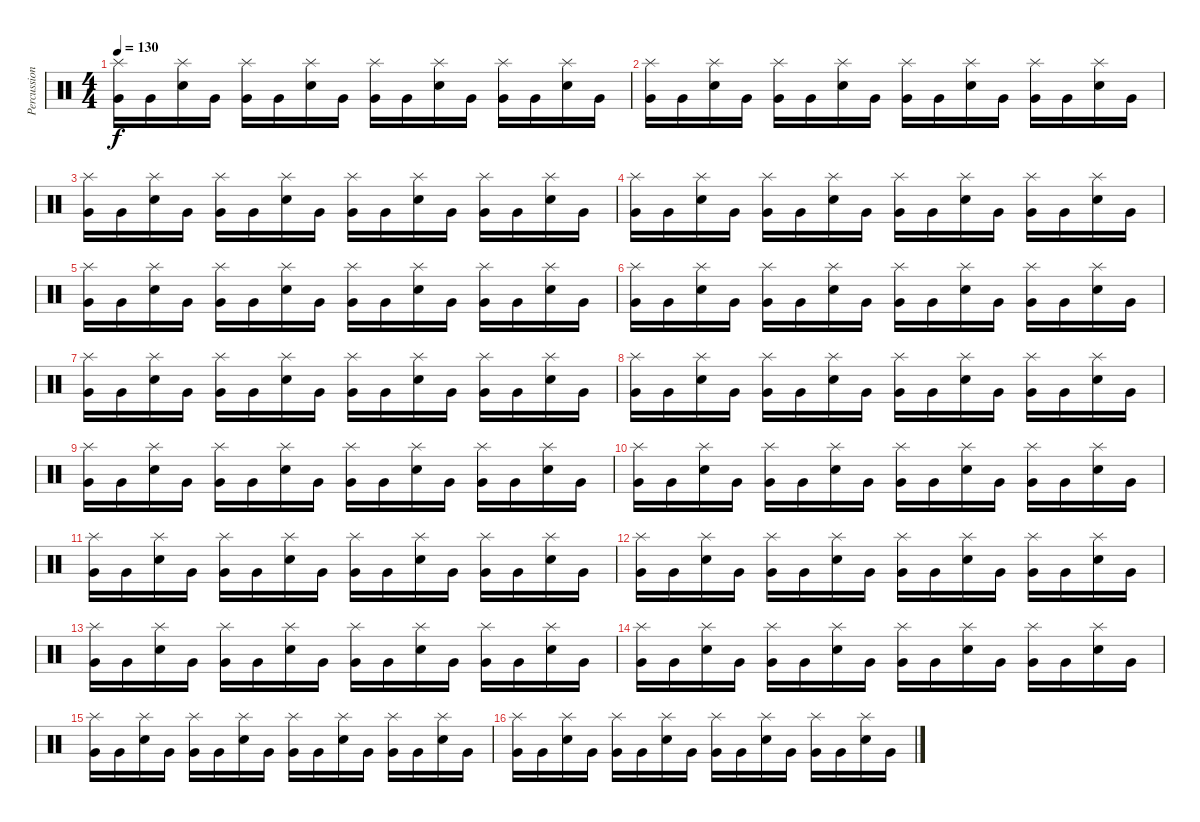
\track ("Percussion" "Percussion") {instrument percussion}
\staff {score}
\articulation defaults
\ts (4 4)
\tempo 130
\clef neutral
\ks c
("Very Low Tom (hit)" "Splash (hit)").16{dy f} "Very Low Tom (hit)".16 ("Snare (hit) 2" "Splash (hit)").16 "Very Low Tom (hit)".16 ("Very Low Tom (hit)" "Splash (hit)").16 "Very Low Tom (hit)".16 ("Snare (hit) 2" "Splash (hit)").16 "Very Low Tom (hit)".16 ("Very Low Tom (hit)" "Splash (hit)").16 "Very Low Tom (hit)".16 ("Snare (hit) 2" "Splash (hit)").16 "Very Low Tom (hit)".16 ("Very Low Tom (hit)" "Splash (hit)").16 "Very Low Tom (hit)".16 ("Snare (hit) 2" "Splash (hit)").16 "Very Low Tom (hit)".16 |
("Very Low Tom (hit)" "Splash (hit)").16 "Very Low Tom (hit)".16 ("Snare (hit) 2" "Splash (hit)").16 "Very Low Tom (hit)".16 ("Very Low Tom (hit)" "Splash (hit)").16 "Very Low Tom (hit)".16 ("Snare (hit) 2" "Splash (hit)").16 "Very Low Tom (hit)".16 ("Very Low Tom (hit)" "Splash (hit)").16 "Very Low Tom (hit)".16 ("Snare (hit) 2" "Splash (hit)").16 "Very Low Tom (hit)".16 ("Very Low Tom (hit)" "Splash (hit)").16 "Very Low Tom (hit)".16 ("Snare (hit) 2" "Splash (hit)").16 "Very Low Tom (hit)".16 |
("Very Low Tom (hit)" "Splash (hit)").16 "Very Low Tom (hit)".16 ("Snare (hit) 2" "Splash (hit)").16 "Very Low Tom (hit)".16 ("Very Low Tom (hit)" "Splash (hit)").16 "Very Low Tom (hit)".16 ("Snare (hit) 2" "Splash (hit)").16 "Very Low Tom (hit)".16 ("Very Low Tom (hit)" "Splash (hit)").16 "Very Low Tom (hit)".16 ("Snare (hit) 2" "Splash (hit)").16 "Very Low Tom (hit)".16 ("Very Low Tom (hit)" "Splash (hit)").16 "Very Low Tom (hit)".16 ("Snare (hit) 2" "Splash (hit)").16 "Very Low Tom (hit)".16 |
("Very Low Tom (hit)" "Splash (hit)").16 "Very Low Tom (hit)".16 ("Snare (hit) 2" "Splash (hit)").16 "Very Low Tom (hit)".16 ("Very Low Tom (hit)" "Splash (hit)").16 "Very Low Tom (hit)".16 ("Snare (hit) 2" "Splash (hit)").16 "Very Low Tom (hit)".16 ("Very Low Tom (hit)" "Splash (hit)").16 "Very Low Tom (hit)".16 ("Snare (hit) 2" "Splash (hit)").16 "Very Low Tom (hit)".16 ("Very Low Tom (hit)" "Splash (hit)").16 "Very Low Tom (hit)".16 ("Snare (hit) 2" "Splash (hit)").16 "Very Low Tom (hit)".16 |
("Very Low Tom (hit)" "Splash (hit)").16 "Very Low Tom (hit)".16 ("Snare (hit) 2" "Splash (hit)").16 "Very Low Tom (hit)".16 ("Very Low Tom (hit)" "Splash (hit)").16 "Very Low Tom (hit)".16 ("Snare (hit) 2" "Splash (hit)").16 "Very Low Tom (hit)".16 ("Very Low Tom (hit)" "Splash (hit)").16 "Very Low Tom (hit)".16 ("Snare (hit) 2" "Splash (hit)").16 "Very Low Tom (hit)".16 ("Very Low Tom (hit)" "Splash (hit)").16 "Very Low Tom (hit)".16 ("Snare (hit) 2" "Splash (hit)").16 "Very Low Tom (hit)".16 |
("Very Low Tom (hit)" "Splash (hit)").16 "Very Low Tom (hit)".16 ("Snare (hit) 2" "Splash (hit)").16 "Very Low Tom (hit)".16 ("Very Low Tom (hit)" "Splash (hit)").16 "Very Low Tom (hit)".16 ("Snare (hit) 2" "Splash (hit)").16 "Very Low Tom (hit)".16 ("Very Low Tom (hit)" "Splash (hit)").16 "Very Low Tom (hit)".16 ("Snare (hit) 2" "Splash (hit)").16 "Very Low Tom (hit)".16 ("Very Low Tom (hit)" "Splash (hit)").16 "Very Low Tom (hit)".16 ("Snare (hit) 2" "Splash (hit)").16 "Very Low Tom (hit)".16 |
("Very Low Tom (hit)" "Splash (hit)").16 "Very Low Tom (hit)".16 ("Snare (hit) 2" "Splash (hit)").16 "Very Low Tom (hit)".16 ("Very Low Tom (hit)" "Splash (hit)").16 "Very Low Tom (hit)".16 ("Snare (hit) 2" "Splash (hit)").16 "Very Low Tom (hit)".16 ("Very Low Tom (hit)" "Splash (hit)").16 "Very Low Tom (hit)".16 ("Snare (hit) 2" "Splash (hit)").16 "Very Low Tom (hit)".16 ("Very Low Tom (hit)" "Splash (hit)").16 "Very Low Tom (hit)".16 ("Snare (hit) 2" "Splash (hit)").16 "Very Low Tom (hit)".16 |
("Very Low Tom (hit)" "Splash (hit)").16 "Very Low Tom (hit)".16 ("Snare (hit) 2" "Splash (hit)").16 "Very Low Tom (hit)".16 ("Very Low Tom (hit)" "Splash (hit)").16 "Very Low Tom (hit)".16 ("Snare (hit) 2" "Splash (hit)").16 "Very Low Tom (hit)".16 ("Very Low Tom (hit)" "Splash (hit)").16 "Very Low Tom (hit)".16 ("Snare (hit) 2" "Splash (hit)").16 "Very Low Tom (hit)".16 ("Very Low Tom (hit)" "Splash (hit)").16 "Very Low Tom (hit)".16 ("Snare (hit) 2" "Splash (hit)").16 "Very Low Tom (hit)".16 |
("Very Low Tom (hit)" "Splash (hit)").16 "Very Low Tom (hit)".16 ("Snare (hit) 2" "Splash (hit)").16 "Very Low Tom (hit)".16 ("Very Low Tom (hit)" "Splash (hit)").16 "Very Low Tom (hit)".16 ("Snare (hit) 2" "Splash (hit)").16 "Very Low Tom (hit)".16 ("Very Low Tom (hit)" "Splash (hit)").16 "Very Low Tom (hit)".16 ("Snare (hit) 2" "Splash (hit)").16 "Very Low Tom (hit)".16 ("Very Low Tom (hit)" "Splash (hit)").16 "Very Low Tom (hit)".16 ("Snare (hit) 2" "Splash (hit)").16 "Very Low Tom (hit)".16 |
("Very Low Tom (hit)" "Splash (hit)").16 "Very Low Tom (hit)".16 ("Snare (hit) 2" "Splash (hit)").16 "Very Low Tom (hit)".16 ("Very Low Tom (hit)" "Splash (hit)").16 "Very Low Tom (hit)".16 ("Snare (hit) 2" "Splash (hit)").16 "Very Low Tom (hit)".16 ("Very Low Tom (hit)" "Splash (hit)").16 "Very Low Tom (hit)".16 ("Snare (hit) 2" "Splash (hit)").16 "Very Low Tom (hit)".16 ("Very Low Tom (hit)" "Splash (hit)").16 "Very Low Tom (hit)".16 ("Snare (hit) 2" "Splash (hit)").16 "Very Low Tom (hit)".16 |
("Very Low Tom (hit)" "Splash (hit)").16 "Very Low Tom (hit)".16 ("Snare (hit) 2" "Splash (hit)").16 "Very Low Tom (hit)".16 ("Very Low Tom (hit)" "Splash (hit)").16 "Very Low Tom (hit)".16 ("Snare (hit) 2" "Splash (hit)").16 "Very Low Tom (hit)".16 ("Very Low Tom (hit)" "Splash (hit)").16 "Very Low Tom (hit)".16 ("Snare (hit) 2" "Splash (hit)").16 "Very Low Tom (hit)".16 ("Very Low Tom (hit)" "Splash (hit)").16 "Very Low Tom (hit)".16 ("Snare (hit) 2" "Splash (hit)").16 "Very Low Tom (hit)".16 |
("Very Low Tom (hit)" "Splash (hit)").16 "Very Low Tom (hit)".16 ("Snare (hit) 2" "Splash (hit)").16 "Very Low Tom (hit)".16 ("Very Low Tom (hit)" "Splash (hit)").16 "Very Low Tom (hit)".16 ("Snare (hit) 2" "Splash (hit)").16 "Very Low Tom (hit)".16 ("Very Low Tom (hit)" "Splash (hit)").16 "Very Low Tom (hit)".16 ("Snare (hit) 2" "Splash (hit)").16 "Very Low Tom (hit)".16 ("Very Low Tom (hit)" "Splash (hit)").16 "Very Low Tom (hit)".16 ("Snare (hit) 2" "Splash (hit)").16 "Very Low Tom (hit)".16 |
("Very Low Tom (hit)" "Splash (hit)").16 "Very Low Tom (hit)".16 ("Snare (hit) 2" "Splash (hit)").16 "Very Low Tom (hit)".16 ("Very Low Tom (hit)" "Splash (hit)").16 "Very Low Tom (hit)".16 ("Snare (hit) 2" "Splash (hit)").16 "Very Low Tom (hit)".16 ("Very Low Tom (hit)" "Splash (hit)").16 "Very Low Tom (hit)".16 ("Snare (hit) 2" "Splash (hit)").16 "Very Low Tom (hit)".16 ("Very Low Tom (hit)" "Splash (hit)").16 "Very Low Tom (hit)".16 ("Snare (hit) 2" "Splash (hit)").16 "Very Low Tom (hit)".16 |
("Very Low Tom (hit)" "Splash (hit)").16 "Very Low Tom (hit)".16 ("Snare (hit) 2" "Splash (hit)").16 "Very Low Tom (hit)".16 ("Very Low Tom (hit)" "Splash (hit)").16 "Very Low Tom (hit)".16 ("Snare (hit) 2" "Splash (hit)").16 "Very Low Tom (hit)".16 ("Very Low Tom (hit)" "Splash (hit)").16 "Very Low Tom (hit)".16 ("Snare (hit) 2" "Splash (hit)").16 "Very Low Tom (hit)".16 ("Very Low Tom (hit)" "Splash (hit)").16 "Very Low Tom (hit)".16 ("Snare (hit) 2" "Splash (hit)").16 "Very Low Tom (hit)".16 |
("Very Low Tom (hit)" "Splash (hit)").16 "Very Low Tom (hit)".16 ("Snare (hit) 2" "Splash (hit)").16 "Very Low Tom (hit)".16 ("Very Low Tom (hit)" "Splash (hit)").16 "Very Low Tom (hit)".16 ("Snare (hit) 2" "Splash (hit)").16 "Very Low Tom (hit)".16 ("Very Low Tom (hit)" "Splash (hit)").16 "Very Low Tom (hit)".16 ("Snare (hit) 2" "Splash (hit)").16 "Very Low Tom (hit)".16 ("Very Low Tom (hit)" "Splash (hit)").16 "Very Low Tom (hit)".16 ("Snare (hit) 2" "Splash (hit)").16 "Very Low Tom (hit)".16 |
("Very Low Tom (hit)" "Splash (hit)").16 "Very Low Tom (hit)".16 ("Snare (hit) 2" "Splash (hit)").16 "Very Low Tom (hit)".16 ("Very Low Tom (hit)" "Splash (hit)").16 "Very Low Tom (hit)".16 ("Snare (hit) 2" "Splash (hit)").16 "Very Low Tom (hit)".16 ("Very Low Tom (hit)" "Splash (hit)").16 "Very Low Tom (hit)".16 ("Snare (hit) 2" "Splash (hit)").16 "Very Low Tom (hit)".16 ("Very Low Tom (hit)" "Splash (hit)").16 "Very Low Tom (hit)".16 ("Snare (hit) 2" "Splash (hit)").16 "Very Low Tom (hit)".16
